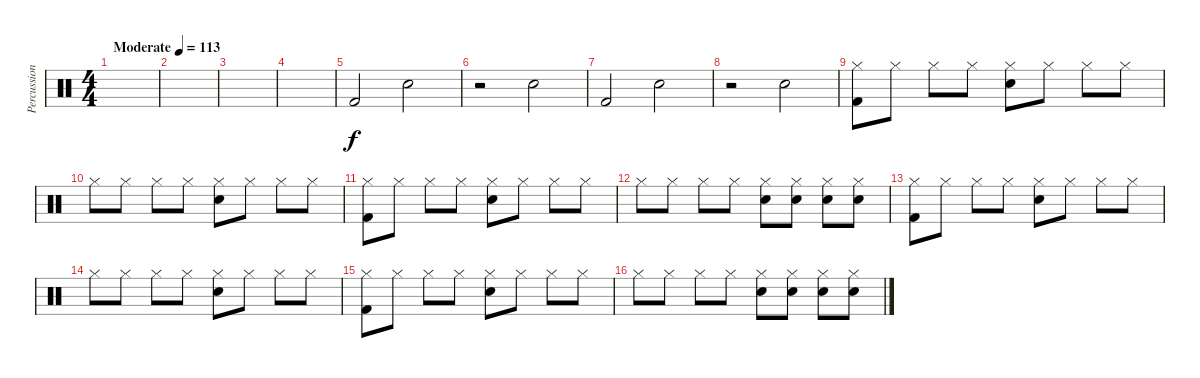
\track ("Percussion" "Percussion") {instrument percussion}
\staff {score}
\articulation defaults
\ts (4 4)
\tempo (113 "Moderate")
\clef neutral
\ks c
|
|
|
|
"Kick (hit) 2".2 "Electric Snare (hit)".2 |
r.2 "Electric Snare (hit)".2 |
"Kick (hit) 2".2 "Electric Snare (hit)".2 |
r.2 "Electric Snare (hit)".2 |
("Hi-Hat (closed)" "Kick (hit) 2").8 "Hi-Hat (closed)".8 "Hi-Hat (closed)".8 "Hi-Hat (closed)".8 ("Hi-Hat (closed)" "Electric Snare (hit)").8 "Hi-Hat (closed)".8 "Hi-Hat (closed)".8 "Hi-Hat (closed)".8 |
"Hi-Hat (closed)".8 "Hi-Hat (closed)".8 "Hi-Hat (closed)".8 "Hi-Hat (closed)".8 ("Hi-Hat (closed)" "Electric Snare (hit)").8 "Hi-Hat (closed)".8 "Hi-Hat (closed)".8 "Hi-Hat (closed)".8 |
("Hi-Hat (closed)" "Kick (hit) 2").8 "Hi-Hat (closed)".8 "Hi-Hat (closed)".8 "Hi-Hat (closed)".8 ("Hi-Hat (closed)" "Electric Snare (hit)").8 "Hi-Hat (closed)".8 "Hi-Hat (closed)".8 "Hi-Hat (closed)".8 |
"Hi-Hat (closed)".8 "Hi-Hat (closed)".8 "Hi-Hat (closed)".8 "Hi-Hat (closed)".8 ("Hi-Hat (closed)" "Electric Snare (hit)").8 ("Snare (hit) 2" "Hi-Hat (closed)").8 ("Snare (hit) 2" "Hi-Hat (closed)").8 ("Snare (hit) 2" "Hi-Hat (closed)").8 |
("Hi-Hat (closed)" "Kick (hit) 2").8 "Hi-Hat (closed)".8 "Hi-Hat (closed)".8 "Hi-Hat (closed)".8 ("Hi-Hat (closed)" "Electric Snare (hit)").8 "Hi-Hat (closed)".8 "Hi-Hat (closed)".8 "Hi-Hat (closed)".8 |
"Hi-Hat (closed)".8 "Hi-Hat (closed)".8 "Hi-Hat (closed)".8 "Hi-Hat (closed)".8 ("Hi-Hat (closed)" "Electric Snare (hit)").8 "Hi-Hat (closed)".8 "Hi-Hat (closed)".8 "Hi-Hat (closed)".8 |
("Hi-Hat (closed)" "Kick (hit) 2").8 "Hi-Hat (closed)".8 "Hi-Hat (closed)".8 "Hi-Hat (closed)".8 ("Hi-Hat (closed)" "Electric Snare (hit)").8 "Hi-Hat (closed)".8 "Hi-Hat (closed)".8 "Hi-Hat (closed)".8 |
"Hi-Hat (closed)".8 "Hi-Hat (closed)".8 "Hi-Hat (closed)".8 "Hi-Hat (closed)".8 ("Hi-Hat (closed)" "Electric Snare (hit)").8 ("Snare (hit) 2" "Hi-Hat (closed)").8 ("Snare (hit) 2" "Hi-Hat (closed)").8 ("Snare (hit) 2" "Hi-Hat (closed)").8
